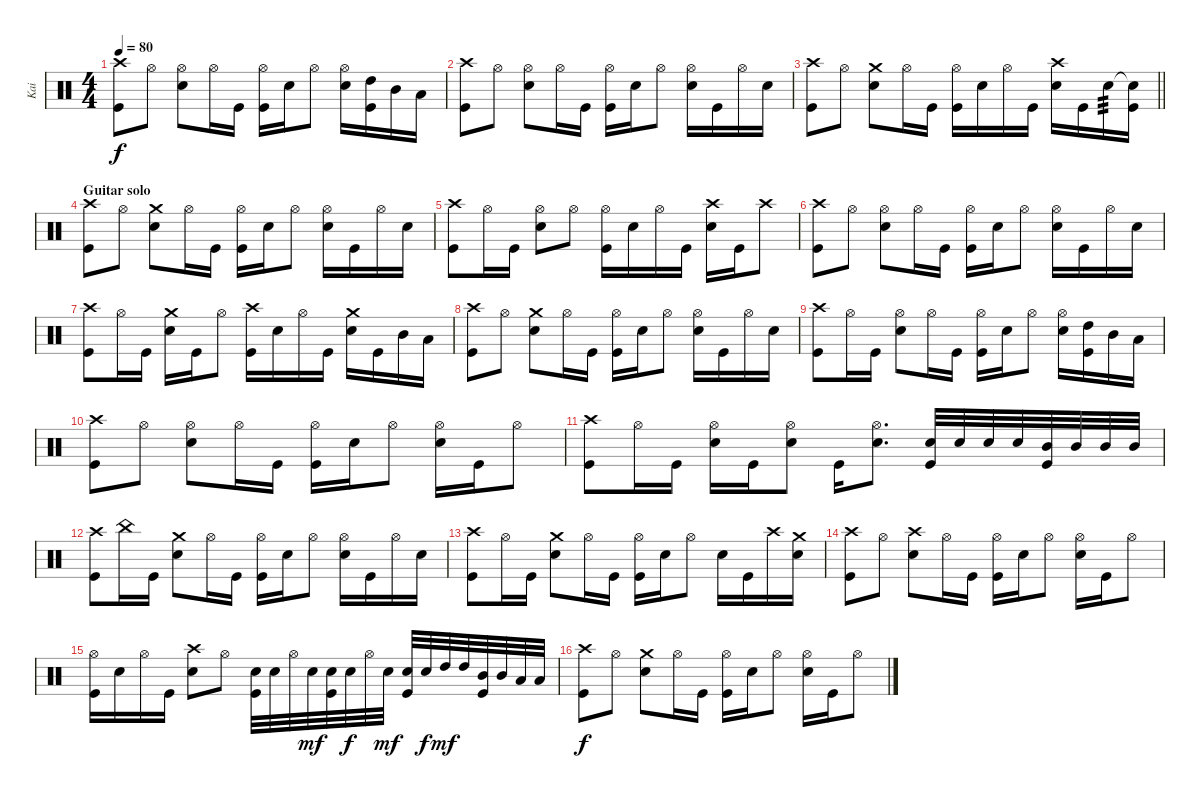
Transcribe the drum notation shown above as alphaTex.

\track ("Kai" "Kai") {instrument percussion}
\staff {score}
\articulation defaults
\ts (4 4)
\tempo 80
\clef neutral
\ks c
("Kick (hit)" "Crash high (hit)").8{dy f} "Hi-Hat (open)".8 ("Snare (hit) 2" "Hi-Hat (open)").8 "Hi-Hat (open)".16 "Kick (hit)".16 ("Kick (hit)" "Hi-Hat (open)").16 "Snare (hit) 2".16 "Hi-Hat (open)".8 ("Snare (hit) 2" "Hi-Hat (open)").16 ("High Tom (hit)" "Kick (hit)").16 "Mid Tom (hit)".16 "Low Tom (hit)".16 |
("Kick (hit)" "Crash high (hit)").8 "Hi-Hat (open)".8 ("Snare (hit) 2" "Hi-Hat (open)").8 "Hi-Hat (open)".16 "Kick (hit)".16 ("Kick (hit)" "Hi-Hat (open)").16 "Snare (hit) 2".16 "Hi-Hat (open)".8 ("Snare (hit) 2" "Hi-Hat (open)").16 "Kick (hit)".16 "Hi-Hat (open)".16 "Snare (hit) 2".16 |
\barLineRight lightlight
("Kick (hit)" "Crash high (hit)").8 "Hi-Hat (open)".8 ("Snare (hit) 2" "Crash medium (hit)").8 "Hi-Hat (open)".16 "Kick (hit)".16 ("Kick (hit)" "Hi-Hat (open)").16 "Snare (hit) 2".16 "Hi-Hat (open)".16 "Kick (hit)".16 ("Snare (hit) 2" "Crash high (hit)").16 "Kick (hit)".16 "Snare (hit) 2".16{tp 3} ("Snare (hit) 2"{t} "Kick (hit)").16 |
\section ("" "Guitar solo")
("Kick (hit)" "Crash high (hit)").8 "Hi-Hat (open)".8 ("Snare (hit) 2" "Crash medium (hit)").8 "Hi-Hat (open)".16 "Kick (hit)".16 ("Kick (hit)" "Hi-Hat (open)").16 "Snare (hit) 2".16 "Hi-Hat (open)".8 ("Snare (hit) 2" "Hi-Hat (open)").16 "Kick (hit)".16 "Hi-Hat (open)".16 "Snare (hit) 2".16 |
("Kick (hit)" "Crash high (hit)").8 "Hi-Hat (open)".16 "Kick (hit)".16 ("Hi-Hat (open)" "Snare (hit) 2").8 "Hi-Hat (open)".8 ("Kick (hit)" "Hi-Hat (open)").16 "Snare (hit) 2".16 "Hi-Hat (open)".16 "Kick (hit)".16 ("Crash high (hit)" "Snare (hit) 2").16 "Kick (hit)".16 "Crash high (hit)".8 |
("Kick (hit)" "Crash high (hit)").8 "Hi-Hat (open)".8 ("Snare (hit) 2" "Hi-Hat (open)").8 "Hi-Hat (open)".16 "Kick (hit)".16 ("Kick (hit)" "Hi-Hat (open)").16 "Snare (hit) 2".16 "Hi-Hat (open)".8 ("Snare (hit) 2" "Hi-Hat (open)").16 "Kick (hit)".16 "Hi-Hat (open)".16 "Snare (hit) 2".16 |
("Kick (hit)" "Crash high (hit)").8 "Hi-Hat (open)".16 "Kick (hit)".16 ("Crash medium (hit)" "Snare (hit) 2").16 "Kick (hit)".16 "Hi-Hat (open)".8 ("Kick (hit)" "Crash high (hit)").16 "Snare (hit) 2".16 "Hi-Hat (open)".16 "Kick (hit)".16 ("Snare (hit) 2" "Crash medium (hit)").16 "Kick (hit)".16 "Mid Tom (hit)".16 "Low Tom (hit)".16 |
("Kick (hit)" "Crash high (hit)").8 "Hi-Hat (open)".8 ("Snare (hit) 2" "Crash medium (hit)").8 "Hi-Hat (open)".16 "Kick (hit)".16 ("Kick (hit)" "Hi-Hat (open)").16 "Snare (hit) 2".16 "Hi-Hat (open)".8 ("Snare (hit) 2" "Hi-Hat (open)").16 "Kick (hit)".16 "Hi-Hat (open)".16 "Snare (hit) 2".16 |
("Kick (hit)" "Crash high (hit)").8 "Hi-Hat (open)".16 "Kick (hit)".16 ("Snare (hit) 2" "Hi-Hat (open)").8 "Hi-Hat (open)".16 "Kick (hit)".16 ("Kick (hit)" "Hi-Hat (open)").16 "Snare (hit) 2".16 "Hi-Hat (open)".8 ("Snare (hit) 2" "Hi-Hat (open)").16 ("High Tom (hit)" "Kick (hit)").16 "Mid Tom (hit)".16 "Low Tom (hit)".16 |
("Kick (hit)" "Crash high (hit)").8 "Hi-Hat (open)".8 ("Snare (hit) 2" "Hi-Hat (open)").8 "Hi-Hat (open)".16 "Kick (hit)".16 ("Kick (hit)" "Hi-Hat (open)").16 "Snare (hit) 2".16 "Hi-Hat (open)".8 ("Snare (hit) 2" "Hi-Hat (open)").16 "Kick (hit)".16 "Hi-Hat (open)".8 |
("Crash high (hit)" "Kick (hit)").8 "Hi-Hat (open)".16 "Kick (hit)".16 ("Snare (hit) 2" "Hi-Hat (open)").16 "Kick (hit)".16 ("Hi-Hat (open)" "Snare (hit) 2").8 "Kick (hit)".16 ("Snare (hit) 2" "Hi-Hat (open)").8{d} ("Snare (hit) 2" "Kick (hit)").32 "Snare (hit) 2".32 "Snare (hit) 2".32 "Snare (hit) 2".32 ("Mid Tom (hit)" "Kick (hit)").32 "Mid Tom (hit)".32 "Mid Tom (hit)".32 "Mid Tom (hit)".32 |
("Kick (hit)" "Crash high (hit)").8 "China (hit)".16 "Kick (hit)".16 ("Snare (hit) 2" "Crash medium (hit)").8 "Hi-Hat (open)".16 "Kick (hit)".16 ("Kick (hit)" "Hi-Hat (open)").16 "Snare (hit) 2".16 "Hi-Hat (open)".8 ("Snare (hit) 2" "Hi-Hat (open)").16 "Kick (hit)".16 "Hi-Hat (open)".16 "Snare (hit) 2".16 |
("Kick (hit)" "Crash high (hit)").8 "Hi-Hat (open)".16 "Kick (hit)".16 ("Snare (hit) 2" "Crash medium (hit)").8 "Hi-Hat (open)".16 "Kick (hit)".16 ("Kick (hit)" "Hi-Hat (open)").16 "Snare (hit) 2".16 "Hi-Hat (open)".8 "Snare (hit) 2".16 "Kick (hit)".16 "Crash high (hit)".16 ("Snare (hit) 2" "Crash medium (hit)").16 |
("Kick (hit)" "Crash high (hit)").8 "Hi-Hat (open)".8 ("Snare (hit) 2" "Crash high (hit)").8 "Hi-Hat (open)".16 "Kick (hit)".16 ("Kick (hit)" "Hi-Hat (open)").16 "Snare (hit) 2".16 "Hi-Hat (open)".8 ("Snare (hit) 2" "Hi-Hat (open)").16 "Kick (hit)".16 "Hi-Hat (open)".8 |
("Hi-Hat (open)" "Kick (hit)").16 "Snare (hit) 2".16 "Hi-Hat (open)".16 "Kick (hit)".16 ("Crash high (hit)" "Snare (hit) 2").8 "Hi-Hat (open)".8 ("Snare (hit) 2" "Kick (hit)").32 "Snare (hit) 2".32 "Hi-Hat (open)".32 "Snare (hit) 2".32{dy mf} ("Snare (hit) 2" "Kick (hit)").32 "Snare (hit) 2".32{dy f} "Hi-Hat (open)".32 "Snare (hit) 2".32{dy mf} ("Snare (hit) 2" "Kick (hit)").32 "Snare (hit) 2".32{dy f} "High Tom (hit)".32{dy mf} "High Tom (hit)".32 ("Mid Tom (hit)" "Kick (hit)").32 "Mid Tom (hit)".32 "Low Tom (hit)".32 "Low Tom (hit)".32 |
("Kick (hit)" "Crash high (hit)").8{dy f} "Hi-Hat (open)".8 ("Snare (hit) 2" "Crash medium (hit)").8 "Hi-Hat (open)".16 "Kick (hit)".16 ("Kick (hit)" "Hi-Hat (open)").16 "Snare (hit) 2".16 "Hi-Hat (open)".8 ("Snare (hit) 2" "Hi-Hat (open)").16 "Kick (hit)".16 "Hi-Hat (open)".8
